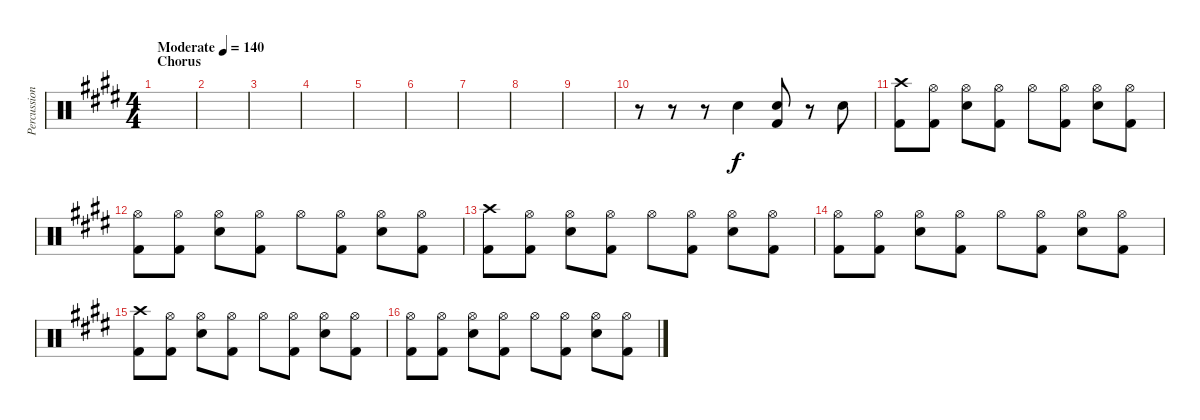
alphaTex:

\track ("Percussion" "Percussion") {instrument percussion}
\staff {score}
\articulation defaults
\ts (4 4)
\section ("" "Chorus")
\tempo (140 "Moderate")
\clef neutral
\ks e
|
|
|
|
|
|
|
|
|
r.8 r.8 r.8 "Electric Snare (hit)".4 ("Electric Snare (hit)" "Kick (hit) 2").8 r.8 "Electric Snare (hit)".8 |
("Crash high (hit)" "Kick (hit) 2").8 ("Hi-Hat (open)" "Kick (hit) 2").8 ("Hi-Hat (open)" "Electric Snare (hit)").8 ("Hi-Hat (open)" "Kick (hit) 2").8 "Hi-Hat (open)".8 ("Hi-Hat (open)" "Kick (hit) 2").8 ("Hi-Hat (open)" "Electric Snare (hit)").8 ("Hi-Hat (open)" "Kick (hit) 2").8 |
("Hi-Hat (open)" "Kick (hit) 2").8 ("Hi-Hat (open)" "Kick (hit) 2").8 ("Hi-Hat (open)" "Electric Snare (hit)").8 ("Hi-Hat (open)" "Kick (hit) 2").8 "Hi-Hat (open)".8 ("Hi-Hat (open)" "Kick (hit) 2").8 ("Hi-Hat (open)" "Electric Snare (hit)").8 ("Hi-Hat (open)" "Kick (hit) 2").8 |
("Crash high (hit)" "Kick (hit) 2").8 ("Hi-Hat (open)" "Kick (hit) 2").8 ("Hi-Hat (open)" "Electric Snare (hit)").8 ("Hi-Hat (open)" "Kick (hit) 2").8 "Hi-Hat (open)".8 ("Hi-Hat (open)" "Kick (hit) 2").8 ("Hi-Hat (open)" "Electric Snare (hit)").8 ("Hi-Hat (open)" "Kick (hit) 2").8 |
("Hi-Hat (open)" "Kick (hit) 2").8 ("Hi-Hat (open)" "Kick (hit) 2").8 ("Hi-Hat (open)" "Electric Snare (hit)").8 ("Hi-Hat (open)" "Kick (hit) 2").8 "Hi-Hat (open)".8 ("Hi-Hat (open)" "Kick (hit) 2").8 ("Hi-Hat (open)" "Electric Snare (hit)").8 ("Hi-Hat (open)" "Kick (hit) 2").8 |
("Crash high (hit)" "Kick (hit) 2").8 ("Hi-Hat (open)" "Kick (hit) 2").8 ("Hi-Hat (open)" "Electric Snare (hit)").8 ("Hi-Hat (open)" "Kick (hit) 2").8 "Hi-Hat (open)".8 ("Hi-Hat (open)" "Kick (hit) 2").8 ("Hi-Hat (open)" "Electric Snare (hit)").8 ("Hi-Hat (open)" "Kick (hit) 2").8 |
("Hi-Hat (open)" "Kick (hit) 2").8 ("Hi-Hat (open)" "Kick (hit) 2").8 ("Hi-Hat (open)" "Electric Snare (hit)").8 ("Hi-Hat (open)" "Kick (hit) 2").8 "Hi-Hat (open)".8 ("Hi-Hat (open)" "Kick (hit) 2").8 ("Hi-Hat (open)" "Electric Snare (hit)").8 ("Hi-Hat (open)" "Kick (hit) 2").8
